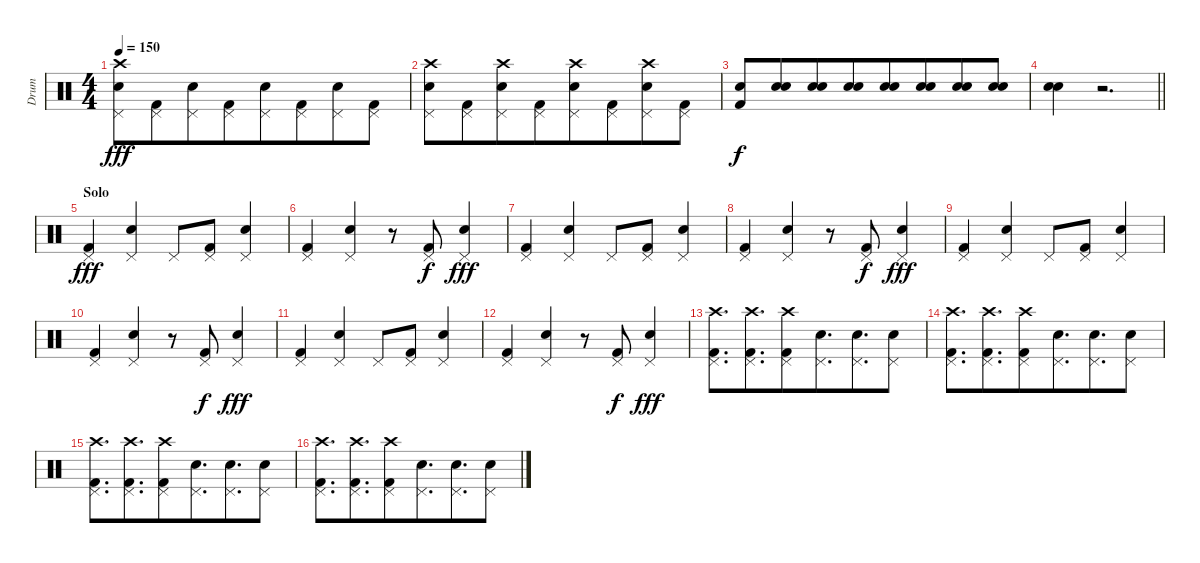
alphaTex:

\track ("Drum" "Drum") {instrument percussion}
\staff {score}
\articulation defaults
\ts (4 4)
\tempo 150
\clef neutral
\ks c
("Crash high (hit)" "Pedal Hi-Hat (hit)" "Snare (hit) 2").8{dy fff beam merge} ("Pedal Hi-Hat (hit)" "Kick (hit) 2").8{beam merge} ("Pedal Hi-Hat (hit)" "Snare (hit) 2").8{beam merge} ("Pedal Hi-Hat (hit)" "Kick (hit) 2").8{beam merge} ("Pedal Hi-Hat (hit)" "Snare (hit) 2").8{beam merge} ("Pedal Hi-Hat (hit)" "Kick (hit) 2").8{beam merge} ("Pedal Hi-Hat (hit)" "Snare (hit) 2").8{beam merge} ("Pedal Hi-Hat (hit)" "Kick (hit) 2").8 |
("Crash high (hit)" "Pedal Hi-Hat (hit)" "Snare (hit) 2").8{beam merge} ("Pedal Hi-Hat (hit)" "Kick (hit) 2").8{beam merge} ("Crash high (hit)" "Pedal Hi-Hat (hit)" "Snare (hit) 2").8{beam merge} ("Pedal Hi-Hat (hit)" "Kick (hit) 2").8{beam merge} ("Crash high (hit)" "Pedal Hi-Hat (hit)" "Snare (hit) 2").8{beam merge} ("Pedal Hi-Hat (hit)" "Kick (hit) 2").8{beam merge} ("Crash high (hit)" "Pedal Hi-Hat (hit)" "Snare (hit) 2").8{beam merge} ("Pedal Hi-Hat (hit)" "Kick (hit) 2").8 |
("Kick (hit) 2" "Snare (hit) 2").8{dy f} ("Snare (hit) 2" "Snare (hit) 2").8{beam merge} ("Snare (hit) 2" "Snare (hit) 2").8 ("Snare (hit) 2" "Snare (hit) 2").8{beam merge} ("Snare (hit) 2" "Snare (hit) 2").8 ("Snare (hit) 2" "Snare (hit) 2").8{beam merge} ("Snare (hit) 2" "Snare (hit) 2").8 ("Snare (hit) 2" "Snare (hit) 2").8 |
\barLineRight lightlight
("Snare (hit) 2" "Snare (hit) 2").4 r.2{d} |
\section ("" "Solo")
("Pedal Hi-Hat (hit)" "Kick (hit) 2").4{dy fff} ("Pedal Hi-Hat (hit)" "Snare (hit) 2").4 "Pedal Hi-Hat (hit)".8 ("Pedal Hi-Hat (hit)" "Kick (hit) 2").8 ("Pedal Hi-Hat (hit)" "Snare (hit) 2").4 |
("Pedal Hi-Hat (hit)" "Kick (hit) 2").4 ("Pedal Hi-Hat (hit)" "Snare (hit) 2").4 r.8 ("Pedal Hi-Hat (hit)" "Kick (hit) 2").8{dy f} ("Pedal Hi-Hat (hit)" "Snare (hit) 2").4{dy fff} |
("Pedal Hi-Hat (hit)" "Kick (hit) 2").4 ("Pedal Hi-Hat (hit)" "Snare (hit) 2").4 "Pedal Hi-Hat (hit)".8 ("Pedal Hi-Hat (hit)" "Kick (hit) 2").8 ("Pedal Hi-Hat (hit)" "Snare (hit) 2").4 |
("Pedal Hi-Hat (hit)" "Kick (hit) 2").4 ("Pedal Hi-Hat (hit)" "Snare (hit) 2").4 r.8 ("Pedal Hi-Hat (hit)" "Kick (hit) 2").8{dy f} ("Pedal Hi-Hat (hit)" "Snare (hit) 2").4{dy fff} |
("Pedal Hi-Hat (hit)" "Kick (hit) 2").4 ("Pedal Hi-Hat (hit)" "Snare (hit) 2").4 "Pedal Hi-Hat (hit)".8 ("Pedal Hi-Hat (hit)" "Kick (hit) 2").8 ("Pedal Hi-Hat (hit)" "Snare (hit) 2").4 |
("Pedal Hi-Hat (hit)" "Kick (hit) 2").4 ("Pedal Hi-Hat (hit)" "Snare (hit) 2").4 r.8 ("Pedal Hi-Hat (hit)" "Kick (hit) 2").8{dy f} ("Pedal Hi-Hat (hit)" "Snare (hit) 2").4{dy fff} |
("Pedal Hi-Hat (hit)" "Kick (hit) 2").4 ("Pedal Hi-Hat (hit)" "Snare (hit) 2").4 "Pedal Hi-Hat (hit)".8 ("Pedal Hi-Hat (hit)" "Kick (hit) 2").8 ("Pedal Hi-Hat (hit)" "Snare (hit) 2").4 |
("Pedal Hi-Hat (hit)" "Kick (hit) 2").4 ("Pedal Hi-Hat (hit)" "Snare (hit) 2").4 r.8 ("Pedal Hi-Hat (hit)" "Kick (hit) 2").8{dy f} ("Pedal Hi-Hat (hit)" "Snare (hit) 2").4{dy fff} |
("Crash high (hit)" "Pedal Hi-Hat (hit)" "Kick (hit) 2").8{d} ("Crash high (hit)" "Pedal Hi-Hat (hit)" "Kick (hit) 2").8{d beam merge} ("Crash high (hit)" "Pedal Hi-Hat (hit)" "Kick (hit) 2").8{beam merge} ("Pedal Hi-Hat (hit)" "Snare (hit) 2").8{d} ("Pedal Hi-Hat (hit)" "Snare (hit) 2").8{d beam merge} ("Pedal Hi-Hat (hit)" "Snare (hit) 2").8 |
("Crash high (hit)" "Pedal Hi-Hat (hit)" "Kick (hit) 2").8{d} ("Crash high (hit)" "Pedal Hi-Hat (hit)" "Kick (hit) 2").8{d beam merge} ("Crash high (hit)" "Pedal Hi-Hat (hit)" "Kick (hit) 2").8{beam merge} ("Pedal Hi-Hat (hit)" "Snare (hit) 2").8{d} ("Pedal Hi-Hat (hit)" "Snare (hit) 2").8{d beam merge} ("Pedal Hi-Hat (hit)" "Snare (hit) 2").8 |
("Crash high (hit)" "Pedal Hi-Hat (hit)" "Kick (hit) 2").8{d} ("Crash high (hit)" "Pedal Hi-Hat (hit)" "Kick (hit) 2").8{d beam merge} ("Crash high (hit)" "Pedal Hi-Hat (hit)" "Kick (hit) 2").8{beam merge} ("Pedal Hi-Hat (hit)" "Snare (hit) 2").8{d} ("Pedal Hi-Hat (hit)" "Snare (hit) 2").8{d beam merge} ("Pedal Hi-Hat (hit)" "Snare (hit) 2").8 |
("Crash high (hit)" "Pedal Hi-Hat (hit)" "Kick (hit) 2").8{d} ("Crash high (hit)" "Pedal Hi-Hat (hit)" "Kick (hit) 2").8{d beam merge} ("Crash high (hit)" "Pedal Hi-Hat (hit)" "Kick (hit) 2").8{beam merge} ("Pedal Hi-Hat (hit)" "Snare (hit) 2").8{d} ("Pedal Hi-Hat (hit)" "Snare (hit) 2").8{d beam merge} ("Pedal Hi-Hat (hit)" "Snare (hit) 2").8
